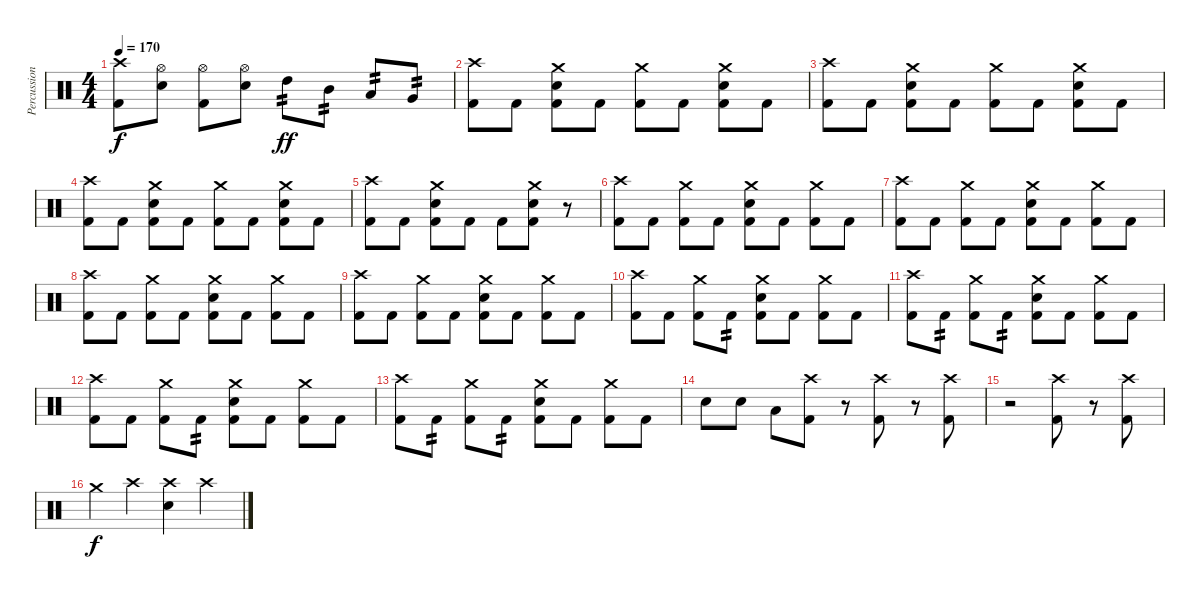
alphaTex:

\track ("Percussion" "Percussion") {solo instrument percussion}
\staff {score}
\articulation defaults
\ts (4 4)
\tempo 170
\clef neutral
\ks c
("Crash high (hit)" "Kick (hit) 2").8{dy f} ("Hi-Hat (open)" "Electric Snare (hit)").8 ("Hi-Hat (open)" "Kick (hit) 2").8 ("Hi-Hat (open)" "Electric Snare (hit)").8 "High Tom (hit)".8{tp 2 dy ff} "Mid Tom (hit)".8{tp 2} "Low Tom (hit)".8{tp 2} "Very Low Tom (hit)".8{tp 2} |
("Crash high (hit)" "Kick (hit) 2").8 "Kick (hit) 2".8 ("Crash medium (hit)" "Kick (hit) 2" "Electric Snare (hit)").8 "Kick (hit) 2".8 ("Crash medium (hit)" "Kick (hit) 2").8 "Kick (hit) 2".8 ("Crash medium (hit)" "Kick (hit) 2" "Electric Snare (hit)").8 "Kick (hit) 2".8 |
("Crash high (hit)" "Kick (hit) 2").8 "Kick (hit) 2".8 ("Crash medium (hit)" "Kick (hit) 2" "Electric Snare (hit)").8 "Kick (hit) 2".8 ("Crash medium (hit)" "Kick (hit) 2").8 "Kick (hit) 2".8 ("Crash medium (hit)" "Kick (hit) 2" "Electric Snare (hit)").8 "Kick (hit) 2".8 |
("Crash high (hit)" "Kick (hit) 2").8 "Kick (hit) 2".8 ("Crash medium (hit)" "Kick (hit) 2" "Electric Snare (hit)").8 "Kick (hit) 2".8 ("Crash medium (hit)" "Kick (hit) 2").8 "Kick (hit) 2".8 ("Crash medium (hit)" "Kick (hit) 2" "Electric Snare (hit)").8 "Kick (hit) 2".8 |
("Crash high (hit)" "Kick (hit) 2").8 "Kick (hit) 2".8 ("Crash medium (hit)" "Kick (hit) 2" "Electric Snare (hit)").8 "Kick (hit) 2".8 "Kick (hit) 2".8 ("Crash medium (hit)" "Kick (hit) 2" "Electric Snare (hit)").8 r.8 |
("Crash high (hit)" "Kick (hit) 2").8 "Kick (hit) 2".8 ("Crash medium (hit)" "Kick (hit) 2").8 "Kick (hit) 2".8 ("Crash medium (hit)" "Kick (hit) 2" "Electric Snare (hit)").8 "Kick (hit) 2".8 ("Crash medium (hit)" "Kick (hit) 2").8 "Kick (hit) 2".8 |
("Crash high (hit)" "Kick (hit) 2").8 "Kick (hit) 2".8 ("Crash medium (hit)" "Kick (hit) 2").8 "Kick (hit) 2".8 ("Crash medium (hit)" "Kick (hit) 2" "Electric Snare (hit)").8 "Kick (hit) 2".8 ("Crash medium (hit)" "Kick (hit) 2").8 "Kick (hit) 2".8 |
("Crash high (hit)" "Kick (hit) 2").8 "Kick (hit) 2".8 ("Crash medium (hit)" "Kick (hit) 2").8 "Kick (hit) 2".8 ("Crash medium (hit)" "Kick (hit) 2" "Electric Snare (hit)").8 "Kick (hit) 2".8 ("Crash medium (hit)" "Kick (hit) 2").8 "Kick (hit) 2".8 |
("Crash high (hit)" "Kick (hit) 2").8 "Kick (hit) 2".8 ("Crash medium (hit)" "Kick (hit) 2").8 "Kick (hit) 2".8 ("Crash medium (hit)" "Kick (hit) 2" "Electric Snare (hit)").8 "Kick (hit) 2".8 ("Crash medium (hit)" "Kick (hit) 2").8 "Kick (hit) 2".8 |
("Crash high (hit)" "Kick (hit) 2").8 "Kick (hit) 2".8 ("Crash medium (hit)" "Kick (hit) 2").8 "Kick (hit) 2".8{tp 2} ("Crash medium (hit)" "Kick (hit) 2" "Electric Snare (hit)").8 "Kick (hit) 2".8 ("Crash medium (hit)" "Kick (hit) 2").8 "Kick (hit) 2".8 |
("Crash high (hit)" "Kick (hit) 2").8 "Kick (hit) 2".8{tp 2} ("Crash medium (hit)" "Kick (hit) 2").8 "Kick (hit) 2".8{tp 2} ("Crash medium (hit)" "Kick (hit) 2" "Electric Snare (hit)").8 "Kick (hit) 2".8 ("Crash medium (hit)" "Kick (hit) 2").8 "Kick (hit) 2".8 |
("Crash high (hit)" "Kick (hit) 2").8 "Kick (hit) 2".8 ("Crash medium (hit)" "Kick (hit) 2").8 "Kick (hit) 2".8{tp 2} ("Crash medium (hit)" "Kick (hit) 2" "Electric Snare (hit)").8 "Kick (hit) 2".8 ("Crash medium (hit)" "Kick (hit) 2").8 "Kick (hit) 2".8 |
("Crash high (hit)" "Kick (hit) 2").8 "Kick (hit) 2".8{tp 2} ("Crash medium (hit)" "Kick (hit) 2").8 "Kick (hit) 2".8{tp 2} ("Crash medium (hit)" "Kick (hit) 2" "Electric Snare (hit)").8 "Kick (hit) 2".8 ("Crash medium (hit)" "Kick (hit) 2").8 "Kick (hit) 2".8 |
"Electric Snare (hit)".8 "Electric Snare (hit)".8 "Low Tom (hit)".8 ("Crash high (hit)" "Kick (hit) 2").8 r.8 ("Crash high (hit)" "Kick (hit) 2").8 r.8 ("Crash high (hit)" "Kick (hit) 2").8 |
r.2 ("Crash high (hit)" "Kick (hit) 2").8 r.8 ("Crash high (hit)" "Kick (hit) 2").8 |
"Crash medium (hit)".4{dy f} "Crash high (hit)".4 ("Crash high (hit)" "Electric Snare (hit)").4 "Crash high (hit)".4
